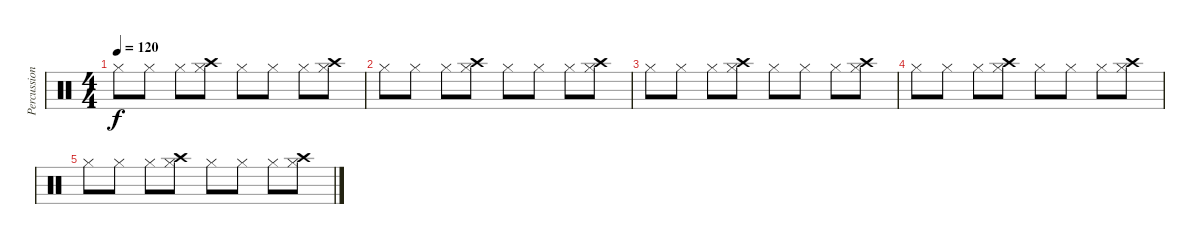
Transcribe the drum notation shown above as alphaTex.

\track ("Percussion" "Percussion") {instrument percussion}
\staff {score}
\articulation defaults
\ts (4 4)
\tempo 120
\clef neutral
\ks c "Hi-Hat (closed)".8{dy f} "Hi-Hat (closed)".8 "Hi-Hat (closed)".8
("Crash high (hit)" "Hi-Hat (closed)").8 "Hi-Hat (closed)".8 "Hi-Hat (closed)".8 "Hi-Hat (closed)".8 ("Crash high (hit)" "Hi-Hat (closed)").8 |
"Hi-Hat (closed)".8 "Hi-Hat (closed)".8 "Hi-Hat (closed)".8 ("Crash high (hit)" "Hi-Hat (closed)").8 "Hi-Hat (closed)".8 "Hi-Hat (closed)".8 "Hi-Hat (closed)".8 ("Crash high (hit)" "Hi-Hat (closed)").8 |
"Hi-Hat (closed)".8 "Hi-Hat (closed)".8 "Hi-Hat (closed)".8 ("Crash high (hit)" "Hi-Hat (closed)").8 "Hi-Hat (closed)".8 "Hi-Hat (closed)".8 "Hi-Hat (closed)".8 ("Crash high (hit)" "Hi-Hat (closed)").8 |
"Hi-Hat (closed)".8 "Hi-Hat (closed)".8 "Hi-Hat (closed)".8 ("Crash high (hit)" "Hi-Hat (closed)").8 "Hi-Hat (closed)".8 "Hi-Hat (closed)".8 "Hi-Hat (closed)".8 ("Crash high (hit)" "Hi-Hat (closed)").8 |
"Hi-Hat (closed)".8 "Hi-Hat (closed)".8 "Hi-Hat (closed)".8 ("Crash high (hit)" "Hi-Hat (closed)").8 "Hi-Hat (closed)".8 "Hi-Hat (closed)".8 "Hi-Hat (closed)".8 ("Crash high (hit)" "Hi-Hat (closed)").8
